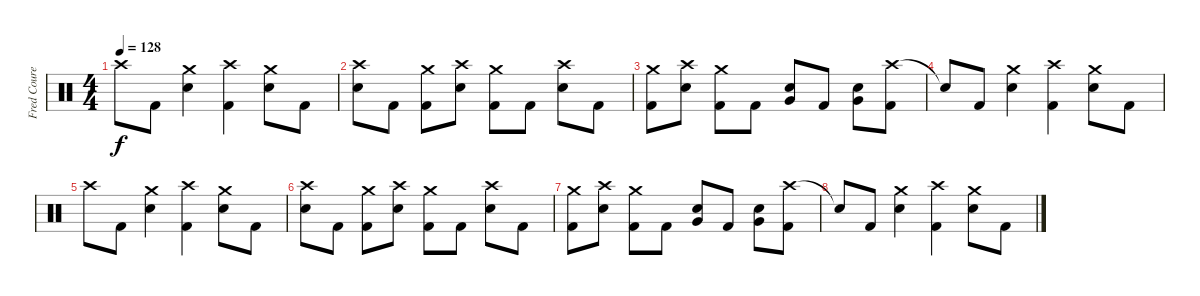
\track ("Fred Courey" "Fred Coure") {instrument percussion}
\staff {score}
\articulation defaults
\ts (4 4)
\tempo 128
\clef neutral
\ks c "Crash high (hit)".8{dy f} "Kick (hit) 2".8
("Crash medium (hit)" "Snare (hit) 2").4 ("Crash high (hit)" "Kick (hit) 2").4 ("Crash medium (hit)" "Snare (hit) 2").8 "Kick (hit) 2".8 |
("Crash high (hit)" "Snare (hit) 2").8 "Kick (hit) 2".8 ("Crash medium (hit)" "Kick (hit) 2").8 ("Crash high (hit)" "Snare (hit) 2").8 ("Crash medium (hit)" "Kick (hit) 2").8 "Kick (hit) 2".8 ("Crash high (hit)" "Snare (hit) 2").8 "Kick (hit) 2".8 |
("Crash medium (hit)" "Kick (hit) 2").8 ("Crash high (hit)" "Snare (hit) 2").8 ("Crash medium (hit)" "Kick (hit) 2").8 "Kick (hit) 2".8 ("Very Low Tom (hit)" "Snare (hit) 2").8 "Kick (hit) 2".8 ("Very Low Tom (hit)" "Snare (hit) 2").8 ("Crash high (hit)" "Kick (hit) 2").8 |
"Snare (hit)"{t}.8 "Kick (hit) 2".8 ("Crash medium (hit)" "Snare (hit) 2").4 ("Crash high (hit)" "Kick (hit) 2").4 ("Crash medium (hit)" "Snare (hit) 2").8 "Kick (hit) 2".8 |
"Crash high (hit)".8 "Kick (hit) 2".8 ("Crash medium (hit)" "Snare (hit) 2").4 ("Crash high (hit)" "Kick (hit) 2").4 ("Crash medium (hit)" "Snare (hit) 2").8 "Kick (hit) 2".8 |
("Crash high (hit)" "Snare (hit) 2").8 "Kick (hit) 2".8 ("Crash medium (hit)" "Kick (hit) 2").8 ("Crash high (hit)" "Snare (hit) 2").8 ("Crash medium (hit)" "Kick (hit) 2").8 "Kick (hit) 2".8 ("Crash high (hit)" "Snare (hit) 2").8 "Kick (hit) 2".8 |
("Crash medium (hit)" "Kick (hit) 2").8 ("Crash high (hit)" "Snare (hit) 2").8 ("Crash medium (hit)" "Kick (hit) 2").8 "Kick (hit) 2".8 ("Very Low Tom (hit)" "Snare (hit) 2").8 "Kick (hit) 2".8 ("Very Low Tom (hit)" "Snare (hit) 2").8 ("Crash high (hit)" "Kick (hit) 2").8 |
"Snare (hit)"{t}.8 "Kick (hit) 2".8 ("Crash medium (hit)" "Snare (hit) 2").4 ("Crash high (hit)" "Kick (hit) 2").4 ("Crash medium (hit)" "Snare (hit) 2").8 "Kick (hit) 2".8
